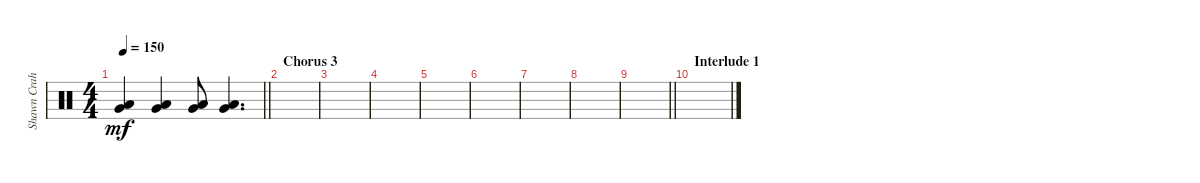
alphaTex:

\track ("Shawn Crahan" "Shawn Crah") {instrument percussion}
\staff {score}
\articulation defaults
\ts (4 4)
\tempo 150
\clef neutral
\barLineRight lightlight
\ks c
("Very Low Tom (hit)" "Low Floor Tom (hit)").4{dy mf} ("Very Low Tom (hit)" "Low Floor Tom (hit)").4 ("Very Low Tom (hit)" "Low Floor Tom (hit)").8 ("Very Low Tom (hit)" "Low Floor Tom (hit)").4{d} |
\section ("" "Chorus 3")
|
|
|
|
|
|
|
\barLineRight lightlight
|
\section ("" "Interlude 1")
